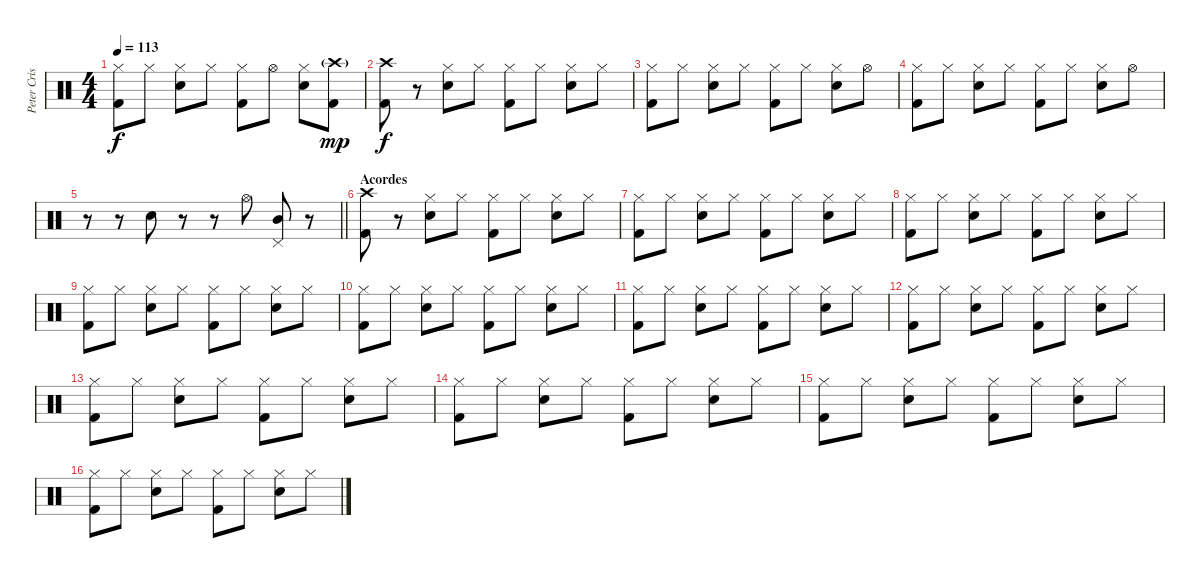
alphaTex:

\track ("Peter Criss" "Peter Cris") {instrument percussion}
\staff {score}
\articulation defaults
\ts (4 4)
\tempo 113
\clef neutral
\ks c
("Hi-Hat (closed)" "Kick (hit) 2").8{dy f} "Hi-Hat (closed)".8 ("Hi-Hat (closed)" "Electric Snare (hit)").8 "Hi-Hat (closed)".8 ("Hi-Hat (closed)" "Kick (hit) 2").8 "Hi-Hat (open)".8 ("Hi-Hat (closed)" "Electric Snare (hit)").8 ("Crash high (hit)"{g} "Kick (hit) 2").8{dy mp} |
("Crash high (hit)" "Kick (hit) 2").8{dy f} r.8 ("Hi-Hat (closed)" "Electric Snare (hit)").8 "Hi-Hat (closed)".8 ("Hi-Hat (closed)" "Kick (hit) 2").8 "Hi-Hat (closed)".8 ("Hi-Hat (closed)" "Electric Snare (hit)").8 "Hi-Hat (closed)".8 |
("Hi-Hat (closed)" "Kick (hit) 2").8 "Hi-Hat (closed)".8 ("Hi-Hat (closed)" "Electric Snare (hit)").8 "Hi-Hat (closed)".8 ("Hi-Hat (closed)" "Kick (hit) 2").8 "Hi-Hat (closed)".8 ("Hi-Hat (closed)" "Electric Snare (hit)").8 "Hi-Hat (open)".8 |
("Hi-Hat (closed)" "Kick (hit) 2").8 "Hi-Hat (closed)".8 ("Hi-Hat (closed)" "Electric Snare (hit)").8 "Hi-Hat (closed)".8 ("Hi-Hat (closed)" "Kick (hit) 2").8 "Hi-Hat (closed)".8 ("Hi-Hat (closed)" "Electric Snare (hit)").8 "Hi-Hat (open)".8 |
\barLineRight lightlight
r.8 r.8 "Electric Snare (hit)".8 r.8 r.8 "Hi-Hat (open)".8 ("Pedal Hi-Hat (hit)" "Mid Tom (hit)").8 r.8 |
\section ("" "Acordes")
("Crash high (hit)" "Kick (hit) 2").8 r.8 ("Hi-Hat (closed)" "Electric Snare (hit)").8 "Hi-Hat (closed)".8 ("Hi-Hat (closed)" "Kick (hit) 2").8 "Hi-Hat (closed)".8 ("Hi-Hat (closed)" "Electric Snare (hit)").8 "Hi-Hat (closed)".8 |
("Hi-Hat (closed)" "Kick (hit) 2").8 "Hi-Hat (closed)".8 ("Hi-Hat (closed)" "Electric Snare (hit)").8 "Hi-Hat (closed)".8 ("Hi-Hat (closed)" "Kick (hit) 2").8 "Hi-Hat (closed)".8 ("Hi-Hat (closed)" "Electric Snare (hit)").8 "Hi-Hat (closed)".8 |
("Hi-Hat (closed)" "Kick (hit) 2").8 "Hi-Hat (closed)".8 ("Hi-Hat (closed)" "Electric Snare (hit)").8 "Hi-Hat (closed)".8 ("Hi-Hat (closed)" "Kick (hit) 2").8 "Hi-Hat (closed)".8 ("Hi-Hat (closed)" "Electric Snare (hit)").8 "Hi-Hat (closed)".8 |
("Hi-Hat (closed)" "Kick (hit) 2").8 "Hi-Hat (closed)".8 ("Hi-Hat (closed)" "Electric Snare (hit)").8 "Hi-Hat (closed)".8 ("Hi-Hat (closed)" "Kick (hit) 2").8 "Hi-Hat (closed)".8 ("Hi-Hat (closed)" "Electric Snare (hit)").8 "Hi-Hat (closed)".8 |
("Hi-Hat (closed)" "Kick (hit) 2").8 "Hi-Hat (closed)".8 ("Hi-Hat (closed)" "Electric Snare (hit)").8 "Hi-Hat (closed)".8 ("Hi-Hat (closed)" "Kick (hit) 2").8 "Hi-Hat (closed)".8 ("Hi-Hat (closed)" "Electric Snare (hit)").8 "Hi-Hat (closed)".8 |
("Hi-Hat (closed)" "Kick (hit) 2").8 "Hi-Hat (closed)".8 ("Hi-Hat (closed)" "Electric Snare (hit)").8 "Hi-Hat (closed)".8 ("Hi-Hat (closed)" "Kick (hit) 2").8 "Hi-Hat (closed)".8 ("Hi-Hat (closed)" "Electric Snare (hit)").8 "Hi-Hat (closed)".8 |
("Hi-Hat (closed)" "Kick (hit) 2").8 "Hi-Hat (closed)".8 ("Hi-Hat (closed)" "Electric Snare (hit)").8 "Hi-Hat (closed)".8 ("Hi-Hat (closed)" "Kick (hit) 2").8 "Hi-Hat (closed)".8 ("Hi-Hat (closed)" "Electric Snare (hit)").8 "Hi-Hat (closed)".8 |
("Hi-Hat (closed)" "Kick (hit) 2").8 "Hi-Hat (closed)".8 ("Hi-Hat (closed)" "Electric Snare (hit)").8 "Hi-Hat (closed)".8 ("Hi-Hat (closed)" "Kick (hit) 2").8 "Hi-Hat (closed)".8 ("Hi-Hat (closed)" "Electric Snare (hit)").8 "Hi-Hat (closed)".8 |
("Hi-Hat (closed)" "Kick (hit) 2").8 "Hi-Hat (closed)".8 ("Hi-Hat (closed)" "Electric Snare (hit)").8 "Hi-Hat (closed)".8 ("Hi-Hat (closed)" "Kick (hit) 2").8 "Hi-Hat (closed)".8 ("Hi-Hat (closed)" "Electric Snare (hit)").8 "Hi-Hat (closed)".8 |
("Hi-Hat (closed)" "Kick (hit) 2").8 "Hi-Hat (closed)".8 ("Hi-Hat (closed)" "Electric Snare (hit)").8 "Hi-Hat (closed)".8 ("Hi-Hat (closed)" "Kick (hit) 2").8 "Hi-Hat (closed)".8 ("Hi-Hat (closed)" "Electric Snare (hit)").8 "Hi-Hat (closed)".8 |
("Hi-Hat (closed)" "Kick (hit) 2").8 "Hi-Hat (closed)".8 ("Hi-Hat (closed)" "Electric Snare (hit)").8 "Hi-Hat (closed)".8 ("Hi-Hat (closed)" "Kick (hit) 2").8 "Hi-Hat (closed)".8 ("Hi-Hat (closed)" "Electric Snare (hit)").8 "Hi-Hat (closed)".8
